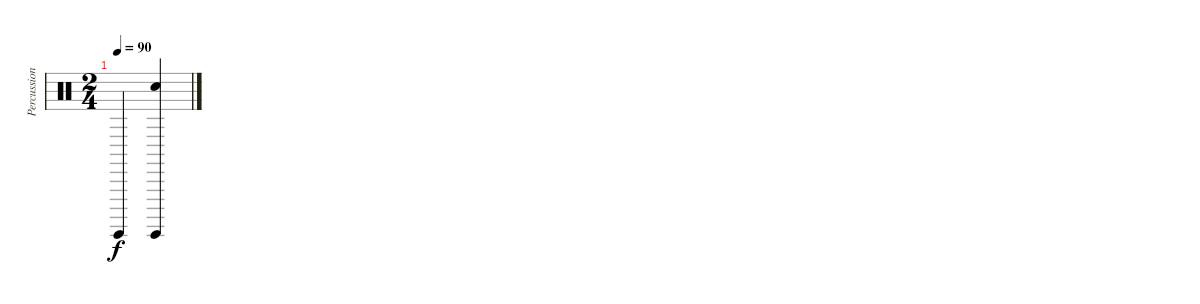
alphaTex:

\track ("Percussion" "Percussion") {instrument percussion}
\staff {score}
\articulation defaults
\ts (2 4)
\tempo 90
\clef neutral
\ks c "Surdo (hit)".4{dy f}
("Surdo (hit)" "Hand Clap (hit)").4
